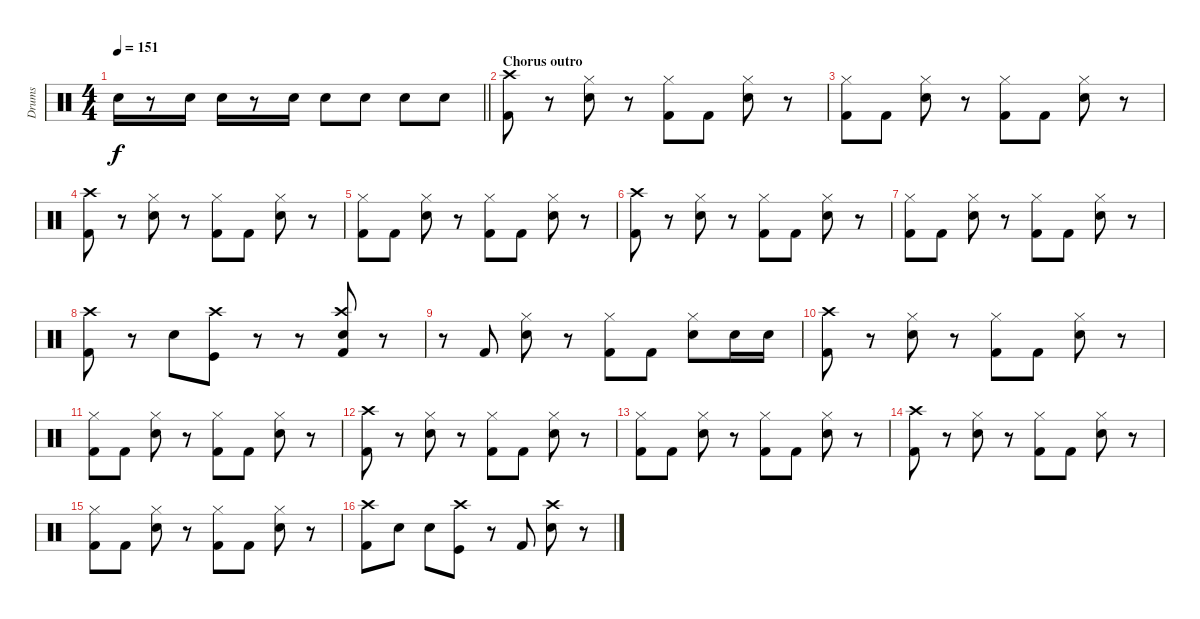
\track ("Drums" "Drums") {instrument percussion}
\staff {score}
\articulation defaults
\ts (4 4)
\tempo 151
\clef neutral
\barLineRight lightlight
\ks c "Snare (hit) 2".16{dy f}
r.8 "Snare (hit) 2".16 "Snare (hit) 2".16 r.8 "Snare (hit) 2".16 "Snare (hit) 2".8 "Snare (hit) 2".8 "Snare (hit) 2".8 "Snare (hit) 2".8 |
\section ("" "Chorus outro")
("Crash high (hit)" "Kick (hit) 2").8 r.8 ("Hi-Hat (closed)" "Snare (hit) 2").8 r.8 ("Hi-Hat (closed)" "Kick (hit) 2").8 "Kick (hit) 2".8 ("Hi-Hat (closed)" "Snare (hit) 2").8 r.8 |
("Hi-Hat (closed)" "Kick (hit) 2").8 "Kick (hit) 2".8 ("Hi-Hat (closed)" "Snare (hit) 2").8 r.8 ("Hi-Hat (closed)" "Kick (hit) 2").8 "Kick (hit) 2".8 ("Hi-Hat (closed)" "Snare (hit) 2").8 r.8 |
("Crash high (hit)" "Kick (hit) 2").8 r.8 ("Hi-Hat (closed)" "Snare (hit) 2").8 r.8 ("Hi-Hat (closed)" "Kick (hit) 2").8 "Kick (hit) 2".8 ("Hi-Hat (closed)" "Snare (hit) 2").8 r.8 |
("Hi-Hat (closed)" "Kick (hit) 2").8 "Kick (hit) 2".8 ("Hi-Hat (closed)" "Snare (hit) 2").8 r.8 ("Hi-Hat (closed)" "Kick (hit) 2").8 "Kick (hit) 2".8 ("Hi-Hat (closed)" "Snare (hit) 2").8 r.8 |
("Crash high (hit)" "Kick (hit) 2").8 r.8 ("Hi-Hat (closed)" "Snare (hit) 2").8 r.8 ("Hi-Hat (closed)" "Kick (hit) 2").8 "Kick (hit) 2".8 ("Hi-Hat (closed)" "Snare (hit) 2").8 r.8 |
("Hi-Hat (closed)" "Kick (hit) 2").8 "Kick (hit) 2".8 ("Hi-Hat (closed)" "Snare (hit) 2").8 r.8 ("Hi-Hat (closed)" "Kick (hit) 2").8 "Kick (hit) 2".8 ("Hi-Hat (closed)" "Snare (hit) 2").8 r.8 |
("Crash high (hit)" "Kick (hit) 2").8 r.8 "Snare (hit) 2".8 ("Crash high (hit)" "Kick (hit)").8 r.8 r.8 ("Crash high (hit)" "Snare (hit) 2" "Kick (hit) 2").8 r.8 |
r.8 "Kick (hit) 2".8 ("Hi-Hat (closed)" "Snare (hit) 2").8 r.8 ("Hi-Hat (closed)" "Kick (hit) 2").8 "Kick (hit) 2".8 ("Hi-Hat (closed)" "Snare (hit) 2").8 "Snare (hit) 2".16 "Snare (hit) 2".16 |
("Crash high (hit)" "Kick (hit) 2").8 r.8 ("Hi-Hat (closed)" "Snare (hit) 2").8 r.8 ("Hi-Hat (closed)" "Kick (hit) 2").8 "Kick (hit) 2".8 ("Hi-Hat (closed)" "Snare (hit) 2").8 r.8 |
("Hi-Hat (closed)" "Kick (hit) 2").8 "Kick (hit) 2".8 ("Hi-Hat (closed)" "Snare (hit) 2").8 r.8 ("Hi-Hat (closed)" "Kick (hit) 2").8 "Kick (hit) 2".8 ("Hi-Hat (closed)" "Snare (hit) 2").8 r.8 |
("Crash high (hit)" "Kick (hit) 2").8 r.8 ("Hi-Hat (closed)" "Snare (hit) 2").8 r.8 ("Hi-Hat (closed)" "Kick (hit) 2").8 "Kick (hit) 2".8 ("Hi-Hat (closed)" "Snare (hit) 2").8 r.8 |
("Hi-Hat (closed)" "Kick (hit) 2").8 "Kick (hit) 2".8 ("Hi-Hat (closed)" "Snare (hit) 2").8 r.8 ("Hi-Hat (closed)" "Kick (hit) 2").8 "Kick (hit) 2".8 ("Hi-Hat (closed)" "Snare (hit) 2").8 r.8 |
("Crash high (hit)" "Kick (hit) 2").8 r.8 ("Hi-Hat (closed)" "Snare (hit) 2").8 r.8 ("Hi-Hat (closed)" "Kick (hit) 2").8 "Kick (hit) 2".8 ("Hi-Hat (closed)" "Snare (hit) 2").8 r.8 |
("Hi-Hat (closed)" "Kick (hit) 2").8 "Kick (hit) 2".8 ("Hi-Hat (closed)" "Snare (hit) 2").8 r.8 ("Hi-Hat (closed)" "Kick (hit) 2").8 "Kick (hit) 2".8 ("Hi-Hat (closed)" "Snare (hit) 2").8 r.8 |
("Crash high (hit)" "Kick (hit) 2").8 "Snare (hit) 2".8 "Snare (hit) 2".8 ("Crash high (hit)" "Kick (hit)").8 r.8 "Kick (hit) 2".8 ("Crash high (hit)" "Snare (hit) 2").8 r.8
